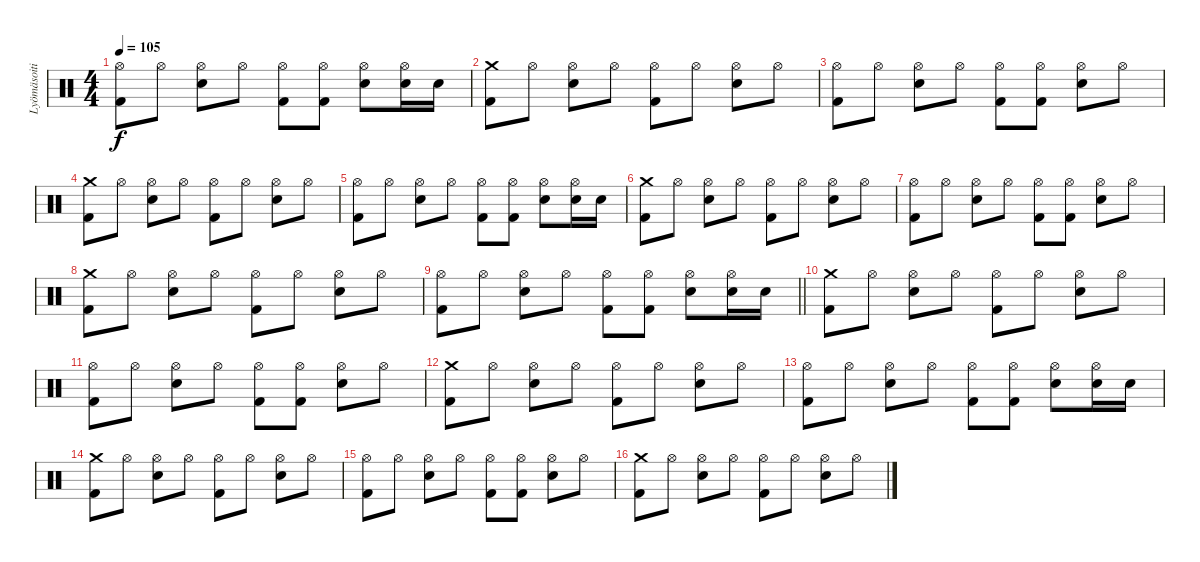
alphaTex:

\track ("Lyömäsoitin" "Lyömäsoiti") {instrument percussion}
\staff {score}
\articulation defaults
\ts (4 4)
\tempo 105
\clef neutral
\ks c
("Hi-Hat (open)" "Kick (hit) 2").8{dy f} "Hi-Hat (open)".8 ("Hi-Hat (open)" "Snare (hit) 2").8 "Hi-Hat (open)".8 ("Hi-Hat (open)" "Kick (hit) 2").8 ("Hi-Hat (open)" "Kick (hit) 2").8 ("Hi-Hat (open)" "Snare (hit) 2").8 ("Hi-Hat (open)" "Snare (hit) 2").16 "Snare (hit) 2".16 |
("Crash medium (hit)" "Kick (hit) 2").8 "Hi-Hat (open)".8 ("Hi-Hat (open)" "Snare (hit) 2").8 "Hi-Hat (open)".8 ("Hi-Hat (open)" "Kick (hit) 2").8 "Hi-Hat (open)".8 ("Hi-Hat (open)" "Snare (hit) 2").8 "Hi-Hat (open)".8 |
("Hi-Hat (open)" "Kick (hit) 2").8 "Hi-Hat (open)".8 ("Hi-Hat (open)" "Snare (hit) 2").8 "Hi-Hat (open)".8 ("Hi-Hat (open)" "Kick (hit) 2").8 ("Hi-Hat (open)" "Kick (hit) 2").8 ("Hi-Hat (open)" "Snare (hit) 2").8 "Hi-Hat (open)".8 |
("Crash medium (hit)" "Kick (hit) 2").8 "Hi-Hat (open)".8 ("Hi-Hat (open)" "Snare (hit) 2").8 "Hi-Hat (open)".8 ("Hi-Hat (open)" "Kick (hit) 2").8 "Hi-Hat (open)".8 ("Hi-Hat (open)" "Snare (hit) 2").8 "Hi-Hat (open)".8 |
("Hi-Hat (open)" "Kick (hit) 2").8 "Hi-Hat (open)".8 ("Hi-Hat (open)" "Snare (hit) 2").8 "Hi-Hat (open)".8 ("Hi-Hat (open)" "Kick (hit) 2").8 ("Hi-Hat (open)" "Kick (hit) 2").8 ("Hi-Hat (open)" "Snare (hit) 2").8 ("Hi-Hat (open)" "Snare (hit) 2").16 "Snare (hit) 2".16 |
("Crash medium (hit)" "Kick (hit) 2").8 "Hi-Hat (open)".8 ("Hi-Hat (open)" "Snare (hit) 2").8 "Hi-Hat (open)".8 ("Hi-Hat (open)" "Kick (hit) 2").8 "Hi-Hat (open)".8 ("Hi-Hat (open)" "Snare (hit) 2").8 "Hi-Hat (open)".8 |
("Hi-Hat (open)" "Kick (hit) 2").8 "Hi-Hat (open)".8 ("Hi-Hat (open)" "Snare (hit) 2").8 "Hi-Hat (open)".8 ("Hi-Hat (open)" "Kick (hit) 2").8 ("Hi-Hat (open)" "Kick (hit) 2").8 ("Hi-Hat (open)" "Snare (hit) 2").8 "Hi-Hat (open)".8 |
("Crash medium (hit)" "Kick (hit) 2").8 "Hi-Hat (open)".8 ("Hi-Hat (open)" "Snare (hit) 2").8 "Hi-Hat (open)".8 ("Hi-Hat (open)" "Kick (hit) 2").8 "Hi-Hat (open)".8 ("Hi-Hat (open)" "Snare (hit) 2").8 "Hi-Hat (open)".8 |
\barLineRight lightlight
("Hi-Hat (open)" "Kick (hit) 2").8 "Hi-Hat (open)".8 ("Hi-Hat (open)" "Snare (hit) 2").8 "Hi-Hat (open)".8 ("Hi-Hat (open)" "Kick (hit) 2").8 ("Hi-Hat (open)" "Kick (hit) 2").8 ("Hi-Hat (open)" "Snare (hit) 2").8 ("Hi-Hat (open)" "Snare (hit) 2").16 "Snare (hit) 2".16 |
("Crash medium (hit)" "Kick (hit) 2").8 "Hi-Hat (open)".8 ("Hi-Hat (open)" "Snare (hit) 2").8 "Hi-Hat (open)".8 ("Hi-Hat (open)" "Kick (hit) 2").8 "Hi-Hat (open)".8 ("Hi-Hat (open)" "Snare (hit) 2").8 "Hi-Hat (open)".8 |
("Hi-Hat (open)" "Kick (hit) 2").8 "Hi-Hat (open)".8 ("Hi-Hat (open)" "Snare (hit) 2").8 "Hi-Hat (open)".8 ("Hi-Hat (open)" "Kick (hit) 2").8 ("Hi-Hat (open)" "Kick (hit) 2").8 ("Hi-Hat (open)" "Snare (hit) 2").8 "Hi-Hat (open)".8 |
("Crash medium (hit)" "Kick (hit) 2").8 "Hi-Hat (open)".8 ("Hi-Hat (open)" "Snare (hit) 2").8 "Hi-Hat (open)".8 ("Hi-Hat (open)" "Kick (hit) 2").8 "Hi-Hat (open)".8 ("Hi-Hat (open)" "Snare (hit) 2").8 "Hi-Hat (open)".8 |
("Hi-Hat (open)" "Kick (hit) 2").8 "Hi-Hat (open)".8 ("Hi-Hat (open)" "Snare (hit) 2").8 "Hi-Hat (open)".8 ("Hi-Hat (open)" "Kick (hit) 2").8 ("Hi-Hat (open)" "Kick (hit) 2").8 ("Hi-Hat (open)" "Snare (hit) 2").8 ("Hi-Hat (open)" "Snare (hit) 2").16 "Snare (hit) 2".16 |
("Crash medium (hit)" "Kick (hit) 2").8 "Hi-Hat (open)".8 ("Hi-Hat (open)" "Snare (hit) 2").8 "Hi-Hat (open)".8 ("Hi-Hat (open)" "Kick (hit) 2").8 "Hi-Hat (open)".8 ("Hi-Hat (open)" "Snare (hit) 2").8 "Hi-Hat (open)".8 |
("Hi-Hat (open)" "Kick (hit) 2").8 "Hi-Hat (open)".8 ("Hi-Hat (open)" "Snare (hit) 2").8 "Hi-Hat (open)".8 ("Hi-Hat (open)" "Kick (hit) 2").8 ("Hi-Hat (open)" "Kick (hit) 2").8 ("Hi-Hat (open)" "Snare (hit) 2").8 "Hi-Hat (open)".8 |
("Crash medium (hit)" "Kick (hit) 2").8 "Hi-Hat (open)".8 ("Hi-Hat (open)" "Snare (hit) 2").8 "Hi-Hat (open)".8 ("Hi-Hat (open)" "Kick (hit) 2").8 "Hi-Hat (open)".8 ("Hi-Hat (open)" "Snare (hit) 2").8 "Hi-Hat (open)".8
